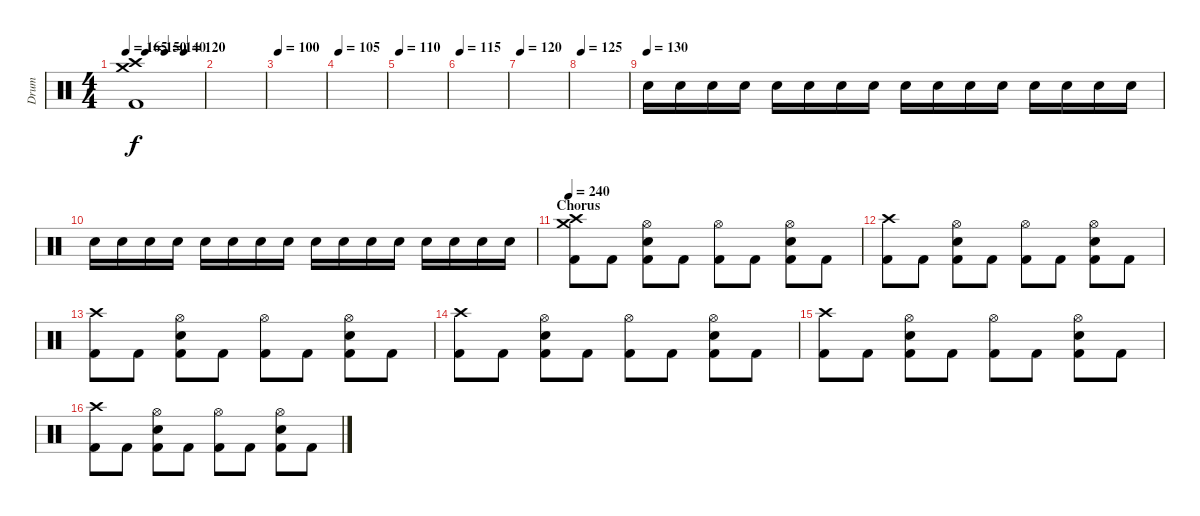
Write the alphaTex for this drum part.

\track ("Drum" "Drum") {instrument percussion}
\staff {score}
\articulation defaults
\ts (4 4)
\tempo 165
\tempo (150 0.25)
\tempo (140 0.5)
\tempo (120 0.75)
\clef neutral
\ks c
("Crash high (hit)" "Kick (hit) 2" "Crash medium (hit)").1{dy f} |
|
\tempo 100
|
\tempo 105
|
\tempo 110
|
\tempo 115
|
\tempo 120
|
\tempo 125
|
\tempo (130)
"Electric Snare (hit)".16 "Electric Snare (hit)".16 "Electric Snare (hit)".16 "Electric Snare (hit)".16 "Electric Snare (hit)".16 "Electric Snare (hit)".16 "Electric Snare (hit)".16 "Electric Snare (hit)".16 "Electric Snare (hit)".16 "Electric Snare (hit)".16 "Electric Snare (hit)".16 "Electric Snare (hit)".16 "Electric Snare (hit)".16 "Electric Snare (hit)".16 "Electric Snare (hit)".16 "Electric Snare (hit)".16 |
"Electric Snare (hit)".16 "Electric Snare (hit)".16 "Electric Snare (hit)".16 "Electric Snare (hit)".16 "Electric Snare (hit)".16 "Electric Snare (hit)".16 "Electric Snare (hit)".16 "Electric Snare (hit)".16 "Electric Snare (hit)".16 "Electric Snare (hit)".16 "Electric Snare (hit)".16 "Electric Snare (hit)".16 "Electric Snare (hit)".16 "Electric Snare (hit)".16 "Electric Snare (hit)".16 "Electric Snare (hit)".16 |
\section ("" "Chorus")
\tempo 240
("Crash high (hit)" "Kick (hit) 2" "Crash medium (hit)").8 "Kick (hit) 2".8 ("Hi-Hat (open)" "Kick (hit) 2" "Electric Snare (hit)").8 "Kick (hit) 2".8 ("Hi-Hat (open)" "Kick (hit) 2").8 "Kick (hit) 2".8 ("Hi-Hat (open)" "Kick (hit) 2" "Electric Snare (hit)").8 "Kick (hit) 2".8 |
("Crash high (hit)" "Kick (hit) 2").8 "Kick (hit) 2".8 ("Hi-Hat (open)" "Kick (hit) 2" "Electric Snare (hit)").8 "Kick (hit) 2".8 ("Hi-Hat (open)" "Kick (hit) 2").8 "Kick (hit) 2".8 ("Hi-Hat (open)" "Kick (hit) 2" "Electric Snare (hit)").8 "Kick (hit) 2".8 |
("Crash high (hit)" "Kick (hit) 2").8 "Kick (hit) 2".8 ("Hi-Hat (open)" "Kick (hit) 2" "Electric Snare (hit)").8 "Kick (hit) 2".8 ("Hi-Hat (open)" "Kick (hit) 2").8 "Kick (hit) 2".8 ("Hi-Hat (open)" "Kick (hit) 2" "Electric Snare (hit)").8 "Kick (hit) 2".8 |
("Crash high (hit)" "Kick (hit) 2").8 "Kick (hit) 2".8 ("Hi-Hat (open)" "Kick (hit) 2" "Electric Snare (hit)").8 "Kick (hit) 2".8 ("Hi-Hat (open)" "Kick (hit) 2").8 "Kick (hit) 2".8 ("Hi-Hat (open)" "Kick (hit) 2" "Electric Snare (hit)").8 "Kick (hit) 2".8 |
("Crash high (hit)" "Kick (hit) 2").8 "Kick (hit) 2".8 ("Hi-Hat (open)" "Kick (hit) 2" "Electric Snare (hit)").8 "Kick (hit) 2".8 ("Hi-Hat (open)" "Kick (hit) 2").8 "Kick (hit) 2".8 ("Hi-Hat (open)" "Kick (hit) 2" "Electric Snare (hit)").8 "Kick (hit) 2".8 |
("Crash high (hit)" "Kick (hit) 2").8 "Kick (hit) 2".8 ("Hi-Hat (open)" "Kick (hit) 2" "Electric Snare (hit)").8 "Kick (hit) 2".8 ("Hi-Hat (open)" "Kick (hit) 2").8 "Kick (hit) 2".8 ("Hi-Hat (open)" "Kick (hit) 2" "Electric Snare (hit)").8 "Kick (hit) 2".8
